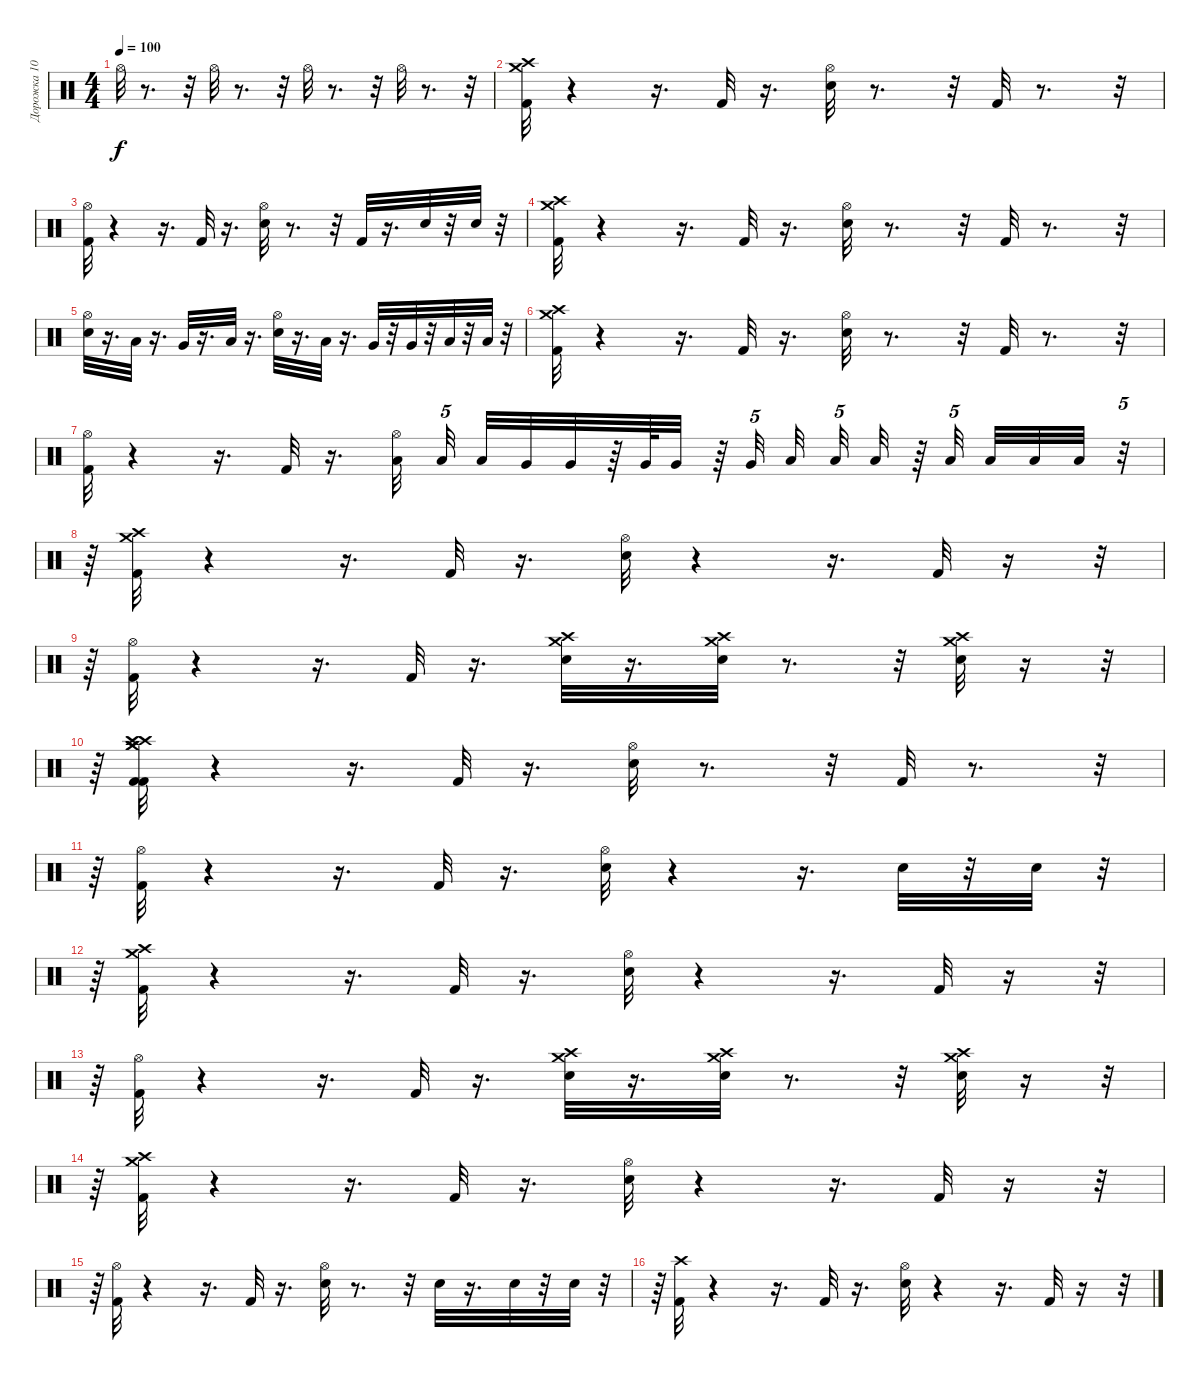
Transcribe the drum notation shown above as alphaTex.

\track ("Дорожка 10" "Дорожка 10") {instrument percussion}
\staff {score}
\articulation defaults
\ts (4 4)
\tempo 100
\clef neutral
\ks c "Hi-Hat (open)".32{dy f}
r.8{d} r.32 "Hi-Hat (open)".32 r.8{d} r.32 "Hi-Hat (open)".32 r.8{d} r.32 "Hi-Hat (open)".32 r.8{d} r.32 |
("Crash medium (hit)" "Crash high (hit)" "Kick (hit) 2").32 r.4 r.16{d} "Kick (hit) 2".32 r.16{d} ("Hi-Hat (open)" "Snare (hit) 2").32 r.8{d} r.32 "Kick (hit) 2".32 r.8{d} r.32 |
("Kick (hit) 2" "Hi-Hat (open)").32 r.4 r.16{d} "Kick (hit) 2".32 r.16{d} ("Snare (hit) 2" "Hi-Hat (open)").32 r.8{d} r.32 "Kick (hit) 2".32 r.16{d} "Snare (hit) 2".32 r.32 "Snare (hit) 2".32 r.32 |
("Crash high (hit)" "Kick (hit) 2" "Crash medium (hit)").32 r.4 r.16{d} "Kick (hit) 2".32 r.16{d} ("Snare (hit) 2" "Hi-Hat (open)").32 r.8{d} r.32 "Kick (hit) 2".32 r.8{d} r.32 |
("Snare (hit) 2" "Hi-Hat (open)").32 r.16{d} "Low Tom (hit)".32 r.16{d} "Very Low Tom (hit)".32 r.16{d} "Low Floor Tom (hit)".32 r.16{d} ("Hi-Hat (open)" "Snare (hit) 2").32 r.16{d} "Low Tom (hit)".32 r.16{d} "Very Low Tom (hit)".32 r.32 "Very Low Tom (hit)".32 r.32 "Low Floor Tom (hit)".32 r.32 "Low Floor Tom (hit)".32 r.32 |
("Crash medium (hit)" "Crash high (hit)" "Kick (hit) 2").32 r.4 r.16{d} "Kick (hit) 2".32 r.16{d} ("Snare (hit) 2" "Hi-Hat (open)").32 r.8{d} r.32 "Kick (hit) 2".32 r.8{d} r.32 |
("Hi-Hat (open)" "Kick (hit) 2").32 r.4 r.16{d} "Kick (hit) 2".32 r.16{d} ("Low Tom (hit)" "Hi-Hat (open)").32 "Low Tom (hit)".32{tu (5 4)} "Low Tom (hit)".32 "Very Low Tom (hit)".32 "Very Low Tom (hit)".32 r.64 "Very Low Tom (hit)".64 "Very Low Tom (hit)".32 r.64 "Very Low Tom (hit)".32{tu (5 4)} "Low Floor Tom (hit)".32 "Low Floor Tom (hit)".32{tu (5 4)} "Low Floor Tom (hit)".32 r.64 "Low Floor Tom (hit)".32{tu (5 4)} "Low Floor Tom (hit)".32 "Low Floor Tom (hit)".32 "Low Floor Tom (hit)".32 r.32{tu (5 4)} |
r.64 ("Crash high (hit)" "Crash medium (hit)" "Kick (hit) 2").32 r.4 r.16{d} "Kick (hit) 2".32 r.16{d} ("Hi-Hat (open)" "Snare (hit) 2").32 r.4 r.16{d} "Kick (hit) 2".32 r.16 r.32{tu (5 4)} |
r.64 ("Hi-Hat (open)" "Kick (hit) 2").32 r.4 r.16{d} "Kick (hit) 2".32 r.16{d} ("Crash high (hit)" "Crash medium (hit)" "Snare (hit) 2").32 r.16{d} ("Crash high (hit)" "Crash medium (hit)" "Snare (hit) 2").32 r.8{d} r.32 ("Crash medium (hit)" "Crash high (hit)" "Snare (hit) 2").32 r.16 r.32{tu (5 4)} |
r.64 ("Crash high (hit)" "Crash medium (hit)" "Kick (hit) 2" "Crash medium (hit)" "Crash high (hit)" "Kick (hit) 2").32 r.4 r.16{d} "Kick (hit) 2".32 r.16{d} ("Snare (hit) 2" "Hi-Hat (open)").32 r.8{d} r.32 "Kick (hit) 2".32 r.8{d} r.32{tu (5 4)} |
r.64 ("Hi-Hat (open)" "Kick (hit) 2").32 r.4 r.16{d} "Kick (hit) 2".32 r.16{d} ("Snare (hit) 2" "Hi-Hat (open)").32 r.4 r.16{d} "Snare (hit) 2".32 r.32 "Snare (hit) 2".32 r.32{tu (5 4)} |
r.64 ("Crash high (hit)" "Crash medium (hit)" "Kick (hit) 2").32 r.4 r.16{d} "Kick (hit) 2".32 r.16{d} ("Hi-Hat (open)" "Snare (hit) 2").32 r.4 r.16{d} "Kick (hit) 2".32 r.16 r.32{tu (5 4)} |
r.64 ("Hi-Hat (open)" "Kick (hit) 2").32 r.4 r.16{d} "Kick (hit) 2".32 r.16{d} ("Crash high (hit)" "Crash medium (hit)" "Snare (hit) 2").32 r.16{d} ("Crash high (hit)" "Crash medium (hit)" "Snare (hit) 2").32 r.8{d} r.32 ("Crash medium (hit)" "Crash high (hit)" "Snare (hit) 2").32 r.16 r.32{tu (5 4)} |
r.64 ("Crash high (hit)" "Crash medium (hit)" "Kick (hit) 2").32 r.4 r.16{d} "Kick (hit) 2".32 r.16{d} ("Hi-Hat (open)" "Snare (hit) 2").32 r.4 r.16{d} "Kick (hit) 2".32 r.16 r.32{tu (5 4)} |
r.64 ("Hi-Hat (open)" "Kick (hit) 2").32 r.4 r.16{d} "Kick (hit) 2".32 r.16{d} ("Hi-Hat (open)" "Snare (hit) 2").32 r.8{d} r.32 "Snare (hit) 2".32 r.16{d} "Snare (hit) 2".32 r.32 "Snare (hit) 2".32 r.32{tu (5 4)} |
r.64 ("Crash high (hit)" "Kick (hit) 2").32 r.4 r.16{d} "Kick (hit) 2".32 r.16{d} ("Hi-Hat (open)" "Snare (hit) 2").32 r.4 r.16{d} "Kick (hit) 2".32 r.16 r.32{tu (5 4)}
